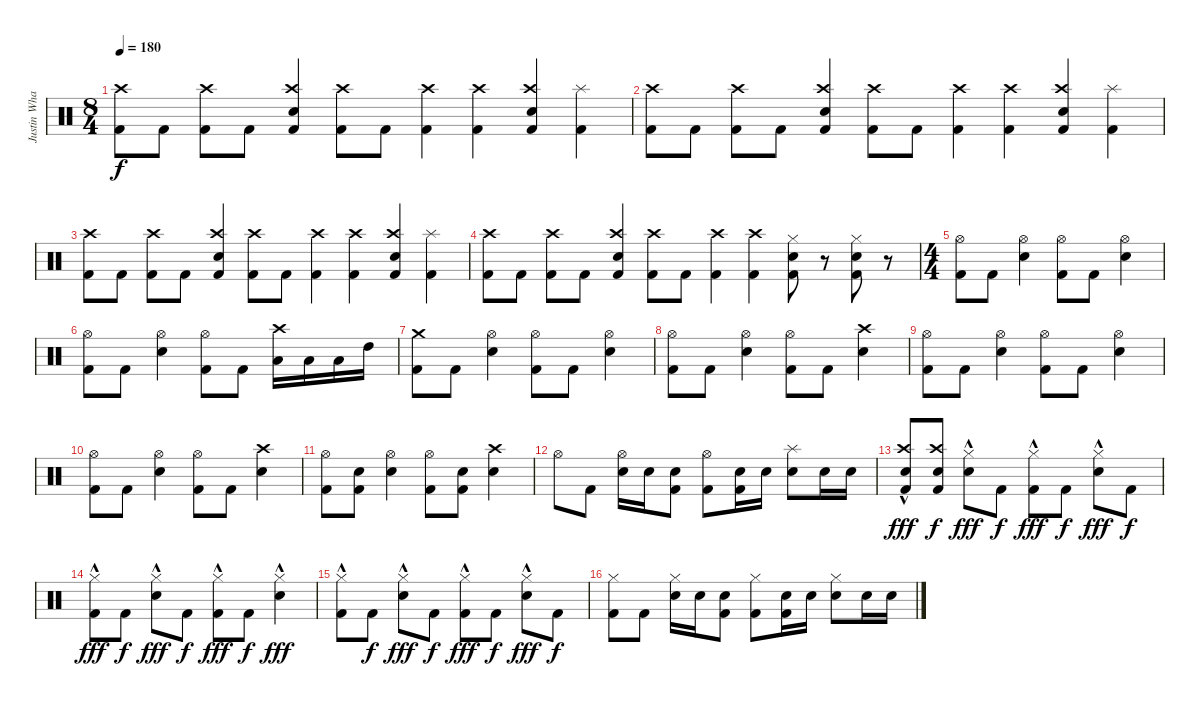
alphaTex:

\track ("Justin Wharton" "Justin Wha") {instrument percussion}
\staff {score}
\articulation defaults
\ts (8 4)
\tempo 180
\clef neutral
\ks c
("Kick (hit) 2" "Crash high (hit)").8{dy f} "Kick (hit) 2".8 ("Kick (hit) 2" "Crash high (hit)").8 "Kick (hit) 2".8 ("Kick (hit) 2" "Electric Snare (hit)" "Crash high (hit)").4 ("Kick (hit) 2" "Crash high (hit)").8 "Kick (hit) 2".8 ("Kick (hit) 2" "Crash high (hit)").4 ("Kick (hit) 2" "Crash high (hit)").4 ("Kick (hit) 2" "Electric Snare (hit)" "Crash high (hit)").4 ("Kick (hit) 2" "Splash (hit)").4 |
("Kick (hit) 2" "Crash high (hit)").8 "Kick (hit) 2".8 ("Kick (hit) 2" "Crash high (hit)").8 "Kick (hit) 2".8 ("Kick (hit) 2" "Electric Snare (hit)" "Crash high (hit)").4 ("Kick (hit) 2" "Crash high (hit)").8 "Kick (hit) 2".8 ("Kick (hit) 2" "Crash high (hit)").4 ("Kick (hit) 2" "Crash high (hit)").4 ("Kick (hit) 2" "Electric Snare (hit)" "Crash high (hit)").4 ("Kick (hit) 2" "Splash (hit)").4 |
("Kick (hit) 2" "Crash high (hit)").8 "Kick (hit) 2".8 ("Kick (hit) 2" "Crash high (hit)").8 "Kick (hit) 2".8 ("Kick (hit) 2" "Electric Snare (hit)" "Crash high (hit)").4 ("Kick (hit) 2" "Crash high (hit)").8 "Kick (hit) 2".8 ("Kick (hit) 2" "Crash high (hit)").4 ("Kick (hit) 2" "Crash high (hit)").4 ("Kick (hit) 2" "Electric Snare (hit)" "Crash high (hit)").4 ("Kick (hit) 2" "Splash (hit)").4 |
("Kick (hit) 2" "Crash high (hit)").8 "Kick (hit) 2".8 ("Kick (hit) 2" "Crash high (hit)").8 "Kick (hit) 2".8 ("Kick (hit) 2" "Electric Snare (hit)" "Crash high (hit)").4 ("Kick (hit) 2" "Crash high (hit)").8 "Kick (hit) 2".8 ("Kick (hit) 2" "Crash high (hit)").4 ("Kick (hit) 2" "Crash high (hit)").4 ("Kick (hit) 2" "Electric Snare (hit)" "Hi-Hat (closed)").8 r.8 ("Kick (hit) 2" "Electric Snare (hit)" "Hi-Hat (closed)").8 r.8 |
\ts (4 4)
("Kick (hit) 2" "Hi-Hat (open)").8 "Kick (hit) 2".8 ("Electric Snare (hit)" "Hi-Hat (open)").4 ("Kick (hit) 2" "Hi-Hat (open)").8 "Kick (hit) 2".8 ("Electric Snare (hit)" "Hi-Hat (open)").4 |
("Kick (hit) 2" "Hi-Hat (open)").8 "Kick (hit) 2".8 ("Electric Snare (hit)" "Hi-Hat (open)").4 ("Kick (hit) 2" "Hi-Hat (open)").8 "Kick (hit) 2".8 ("Low Floor Tom (hit)" "Crash high (hit)").16 "Low Floor Tom (hit)".16 "Low Tom (hit)".16 "High Tom (hit)".16 |
("Kick (hit) 2" "Crash medium (hit)").8 "Kick (hit) 2".8 ("Electric Snare (hit)" "Hi-Hat (open)").4 ("Kick (hit) 2" "Hi-Hat (open)").8 "Kick (hit) 2".8 ("Electric Snare (hit)" "Hi-Hat (open)").4 |
("Kick (hit) 2" "Hi-Hat (open)").8 "Kick (hit) 2".8 ("Electric Snare (hit)" "Hi-Hat (open)").4 ("Kick (hit) 2" "Hi-Hat (open)").8 "Kick (hit) 2".8 ("Electric Snare (hit)" "Crash high (hit)").4 |
("Kick (hit) 2" "Hi-Hat (open)").8 "Kick (hit) 2".8 ("Electric Snare (hit)" "Hi-Hat (open)").4 ("Kick (hit) 2" "Hi-Hat (open)").8 "Kick (hit) 2".8 ("Electric Snare (hit)" "Hi-Hat (open)").4 |
("Kick (hit) 2" "Hi-Hat (open)").8 "Kick (hit) 2".8 ("Electric Snare (hit)" "Hi-Hat (open)").4 ("Kick (hit) 2" "Hi-Hat (open)").8 "Kick (hit) 2".8 ("Electric Snare (hit)" "Crash high (hit)").4 |
("Kick (hit) 2" "Hi-Hat (open)").8 ("Kick (hit) 2" "Electric Snare (hit)").8 ("Electric Snare (hit)" "Hi-Hat (open)").4 ("Kick (hit) 2" "Hi-Hat (open)").8 ("Kick (hit) 2" "Electric Snare (hit)").8 ("Electric Snare (hit)" "Crash high (hit)").4 |
"Hi-Hat (open)".8 "Kick (hit) 2".8 ("Electric Snare (hit)" "Hi-Hat (open)").16 "Electric Snare (hit)".16 ("Kick (hit) 2" "Electric Snare (hit)").8 ("Kick (hit) 2" "Hi-Hat (open)").8 ("Kick (hit) 2" "Electric Snare (hit)").16 "Electric Snare (hit)".16 ("Electric Snare (hit)" "Splash (hit)").8 "Electric Snare (hit)".16 "Electric Snare (hit)".16 |
("Kick (hit) 2" "Electric Snare (hit)" "Crash high (hit)"{hac}).8{dy fff} ("Kick (hit) 2" "Electric Snare (hit)" "Crash high (hit)").8{dy f} ("Electric Snare (hit)" "Hi-Hat (closed)"{hac}).8{dy fff} "Kick (hit) 2".8{dy f} ("Kick (hit) 2" "Hi-Hat (closed)"{hac}).8{dy fff} "Kick (hit) 2".8{dy f} ("Electric Snare (hit)" "Hi-Hat (closed)"{hac}).8{dy fff} "Kick (hit) 2".8{dy f} |
("Kick (hit) 2" "Hi-Hat (closed)"{hac}).8{dy fff} "Kick (hit) 2".8{dy f} ("Electric Snare (hit)" "Hi-Hat (closed)"{hac}).8{dy fff} "Kick (hit) 2".8{dy f} ("Kick (hit) 2" "Hi-Hat (closed)"{hac}).8{dy fff} "Kick (hit) 2".8{dy f} ("Electric Snare (hit)" "Hi-Hat (closed)"{hac}).4{dy fff} |
("Kick (hit) 2" "Hi-Hat (closed)"{hac}).8 "Kick (hit) 2".8{dy f} ("Electric Snare (hit)" "Hi-Hat (closed)"{hac}).8{dy fff} "Kick (hit) 2".8{dy f} ("Kick (hit) 2" "Hi-Hat (closed)"{hac}).8{dy fff} "Kick (hit) 2".8{dy f} ("Electric Snare (hit)" "Hi-Hat (closed)"{hac}).8{dy fff} "Kick (hit) 2".8{dy f} |
("Kick (hit) 2" "Hi-Hat (closed)").8 "Kick (hit) 2".8 ("Electric Snare (hit)" "Hi-Hat (closed)").16 "Electric Snare (hit)".16 ("Kick (hit) 2" "Electric Snare (hit)").8 ("Kick (hit) 2" "Hi-Hat (closed)").8 ("Kick (hit) 2" "Electric Snare (hit)").16 "Electric Snare (hit)".16 ("Electric Snare (hit)" "Hi-Hat (closed)").8 "Electric Snare (hit)".16 "Electric Snare (hit)".16
